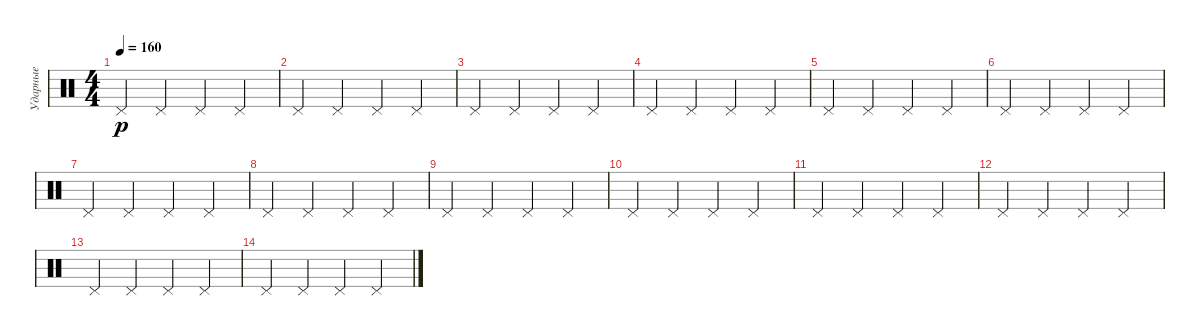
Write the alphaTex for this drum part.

\track ("Ударные" "Ударные") {instrument percussion}
\staff {score}
\articulation defaults
\ts (4 4)
\tempo 160
\clef neutral
\ks c "Pedal Hi-Hat (hit)".4{dy p} "Pedal Hi-Hat (hit)".4 "Pedal Hi-Hat (hit)".4 "Pedal Hi-Hat (hit)".4
|
"Pedal Hi-Hat (hit)".4 "Pedal Hi-Hat (hit)".4 "Pedal Hi-Hat (hit)".4 "Pedal Hi-Hat (hit)".4 |
"Pedal Hi-Hat (hit)".4 "Pedal Hi-Hat (hit)".4 "Pedal Hi-Hat (hit)".4 "Pedal Hi-Hat (hit)".4 |
"Pedal Hi-Hat (hit)".4 "Pedal Hi-Hat (hit)".4 "Pedal Hi-Hat (hit)".4 "Pedal Hi-Hat (hit)".4 |
"Pedal Hi-Hat (hit)".4 "Pedal Hi-Hat (hit)".4 "Pedal Hi-Hat (hit)".4 "Pedal Hi-Hat (hit)".4 |
"Pedal Hi-Hat (hit)".4 "Pedal Hi-Hat (hit)".4 "Pedal Hi-Hat (hit)".4 "Pedal Hi-Hat (hit)".4 |
"Pedal Hi-Hat (hit)".4 "Pedal Hi-Hat (hit)".4 "Pedal Hi-Hat (hit)".4 "Pedal Hi-Hat (hit)".4 |
"Pedal Hi-Hat (hit)".4 "Pedal Hi-Hat (hit)".4 "Pedal Hi-Hat (hit)".4 "Pedal Hi-Hat (hit)".4 |
"Pedal Hi-Hat (hit)".4 "Pedal Hi-Hat (hit)".4 "Pedal Hi-Hat (hit)".4 "Pedal Hi-Hat (hit)".4 |
"Pedal Hi-Hat (hit)".4 "Pedal Hi-Hat (hit)".4 "Pedal Hi-Hat (hit)".4 "Pedal Hi-Hat (hit)".4 |
"Pedal Hi-Hat (hit)".4 "Pedal Hi-Hat (hit)".4 "Pedal Hi-Hat (hit)".4 "Pedal Hi-Hat (hit)".4 |
"Pedal Hi-Hat (hit)".4 "Pedal Hi-Hat (hit)".4 "Pedal Hi-Hat (hit)".4 "Pedal Hi-Hat (hit)".4 |
"Pedal Hi-Hat (hit)".4 "Pedal Hi-Hat (hit)".4 "Pedal Hi-Hat (hit)".4 "Pedal Hi-Hat (hit)".4 |
"Pedal Hi-Hat (hit)".4 "Pedal Hi-Hat (hit)".4 "Pedal Hi-Hat (hit)".4 "Pedal Hi-Hat (hit)".4
